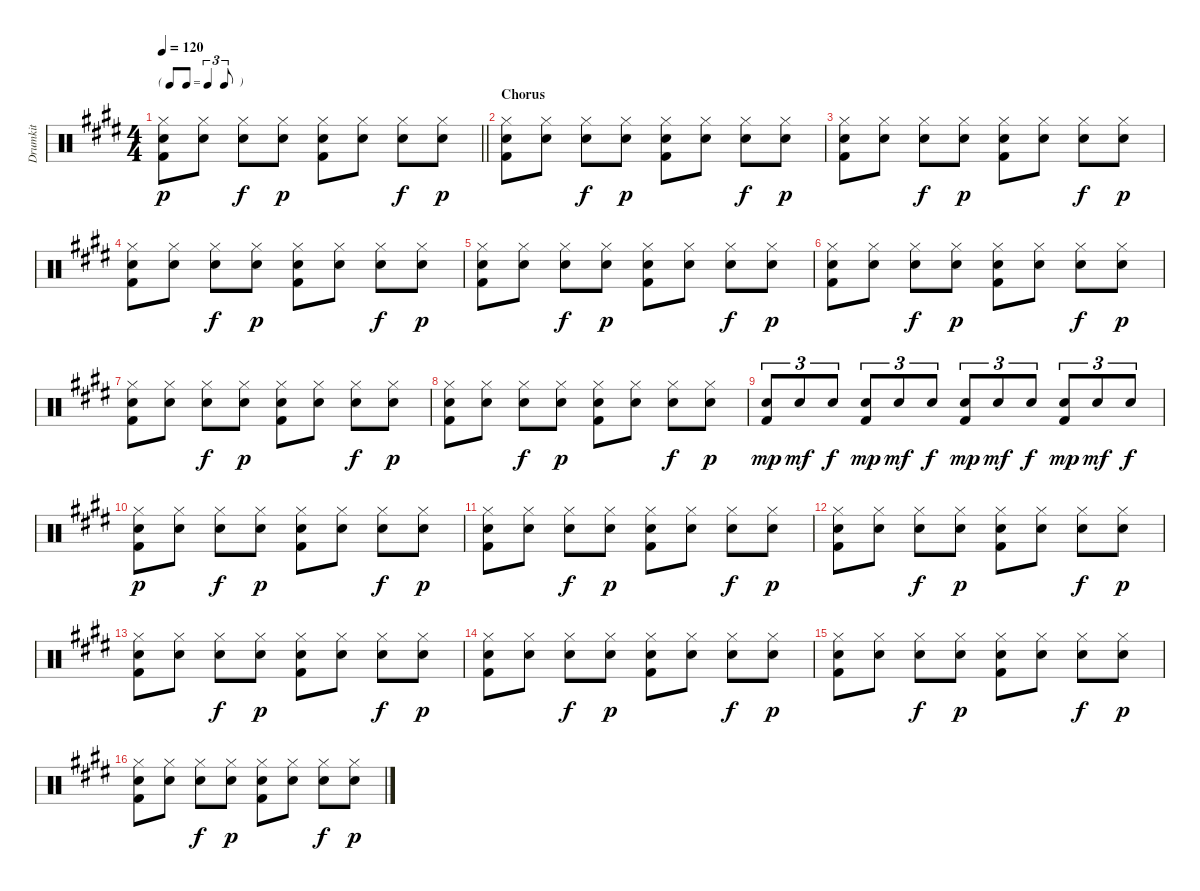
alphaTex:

\track ("Drumkit" "Drumkit") {instrument percussion}
\staff {score}
\articulation defaults
\ts (4 4)
\tf triplet8th
\tempo 120
\clef neutral
\barLineRight lightlight
\ks e
("Hi-Hat (closed)" "Snare (hit) 2" "Kick (hit) 2").8{dy p} ("Hi-Hat (closed)" "Snare (hit) 2").8 ("Hi-Hat (closed)" "Snare (hit) 2").8{dy f} ("Hi-Hat (closed)" "Snare (hit) 2").8{dy p} ("Hi-Hat (closed)" "Snare (hit) 2" "Kick (hit) 2").8 ("Hi-Hat (closed)" "Snare (hit) 2").8 ("Hi-Hat (closed)" "Snare (hit) 2").8{dy f} ("Hi-Hat (closed)" "Snare (hit) 2").8{dy p} |
\section ("" "Chorus")
("Hi-Hat (closed)" "Snare (hit) 2" "Kick (hit) 2").8 ("Hi-Hat (closed)" "Snare (hit) 2").8 ("Hi-Hat (closed)" "Snare (hit) 2").8{dy f} ("Hi-Hat (closed)" "Snare (hit) 2").8{dy p} ("Hi-Hat (closed)" "Snare (hit) 2" "Kick (hit) 2").8 ("Hi-Hat (closed)" "Snare (hit) 2").8 ("Hi-Hat (closed)" "Snare (hit) 2").8{dy f} ("Hi-Hat (closed)" "Snare (hit) 2").8{dy p} |
("Hi-Hat (closed)" "Snare (hit) 2" "Kick (hit) 2").8 ("Hi-Hat (closed)" "Snare (hit) 2").8 ("Hi-Hat (closed)" "Snare (hit) 2").8{dy f} ("Hi-Hat (closed)" "Snare (hit) 2").8{dy p} ("Hi-Hat (closed)" "Snare (hit) 2" "Kick (hit) 2").8 ("Hi-Hat (closed)" "Snare (hit) 2").8 ("Hi-Hat (closed)" "Snare (hit) 2").8{dy f} ("Hi-Hat (closed)" "Snare (hit) 2").8{dy p} |
("Hi-Hat (closed)" "Snare (hit) 2" "Kick (hit) 2").8 ("Hi-Hat (closed)" "Snare (hit) 2").8 ("Hi-Hat (closed)" "Snare (hit) 2").8{dy f} ("Hi-Hat (closed)" "Snare (hit) 2").8{dy p} ("Hi-Hat (closed)" "Snare (hit) 2" "Kick (hit) 2").8 ("Hi-Hat (closed)" "Snare (hit) 2").8 ("Hi-Hat (closed)" "Snare (hit) 2").8{dy f} ("Hi-Hat (closed)" "Snare (hit) 2").8{dy p} |
("Hi-Hat (closed)" "Snare (hit) 2" "Kick (hit) 2").8 ("Hi-Hat (closed)" "Snare (hit) 2").8 ("Hi-Hat (closed)" "Snare (hit) 2").8{dy f} ("Hi-Hat (closed)" "Snare (hit) 2").8{dy p} ("Hi-Hat (closed)" "Snare (hit) 2" "Kick (hit) 2").8 ("Hi-Hat (closed)" "Snare (hit) 2").8 ("Hi-Hat (closed)" "Snare (hit) 2").8{dy f} ("Hi-Hat (closed)" "Snare (hit) 2").8{dy p} |
("Hi-Hat (closed)" "Snare (hit) 2" "Kick (hit) 2").8 ("Hi-Hat (closed)" "Snare (hit) 2").8 ("Hi-Hat (closed)" "Snare (hit) 2").8{dy f} ("Hi-Hat (closed)" "Snare (hit) 2").8{dy p} ("Hi-Hat (closed)" "Snare (hit) 2" "Kick (hit) 2").8 ("Hi-Hat (closed)" "Snare (hit) 2").8 ("Hi-Hat (closed)" "Snare (hit) 2").8{dy f} ("Hi-Hat (closed)" "Snare (hit) 2").8{dy p} |
("Hi-Hat (closed)" "Snare (hit) 2" "Kick (hit) 2").8 ("Hi-Hat (closed)" "Snare (hit) 2").8 ("Hi-Hat (closed)" "Snare (hit) 2").8{dy f} ("Hi-Hat (closed)" "Snare (hit) 2").8{dy p} ("Hi-Hat (closed)" "Snare (hit) 2" "Kick (hit) 2").8 ("Hi-Hat (closed)" "Snare (hit) 2").8 ("Hi-Hat (closed)" "Snare (hit) 2").8{dy f} ("Hi-Hat (closed)" "Snare (hit) 2").8{dy p} |
("Hi-Hat (closed)" "Snare (hit) 2" "Kick (hit) 2").8 ("Hi-Hat (closed)" "Snare (hit) 2").8 ("Hi-Hat (closed)" "Snare (hit) 2").8{dy f} ("Hi-Hat (closed)" "Snare (hit) 2").8{dy p} ("Hi-Hat (closed)" "Snare (hit) 2" "Kick (hit) 2").8 ("Hi-Hat (closed)" "Snare (hit) 2").8 ("Hi-Hat (closed)" "Snare (hit) 2").8{dy f} ("Hi-Hat (closed)" "Snare (hit) 2").8{dy p} |
("Snare (hit) 2" "Kick (hit) 2").8{tu (3 2) dy mp} "Snare (hit) 2".8{tu (3 2) dy mf} "Snare (hit) 2".8{tu (3 2) dy f} ("Snare (hit) 2" "Kick (hit) 2").8{tu (3 2) dy mp} "Snare (hit) 2".8{tu (3 2) dy mf} "Snare (hit) 2".8{tu (3 2) dy f} ("Snare (hit) 2" "Kick (hit) 2").8{tu (3 2) dy mp} "Snare (hit) 2".8{tu (3 2) dy mf} "Snare (hit) 2".8{tu (3 2) dy f} ("Snare (hit) 2" "Kick (hit) 2").8{tu (3 2) dy mp} "Snare (hit) 2".8{tu (3 2) dy mf} "Snare (hit) 2".8{tu (3 2) dy f} |
("Hi-Hat (closed)" "Snare (hit) 2" "Kick (hit) 2").8{dy p} ("Hi-Hat (closed)" "Snare (hit) 2").8 ("Hi-Hat (closed)" "Snare (hit) 2").8{dy f} ("Hi-Hat (closed)" "Snare (hit) 2").8{dy p} ("Hi-Hat (closed)" "Snare (hit) 2" "Kick (hit) 2").8 ("Hi-Hat (closed)" "Snare (hit) 2").8 ("Hi-Hat (closed)" "Snare (hit) 2").8{dy f} ("Hi-Hat (closed)" "Snare (hit) 2").8{dy p} |
("Hi-Hat (closed)" "Snare (hit) 2" "Kick (hit) 2").8 ("Hi-Hat (closed)" "Snare (hit) 2").8 ("Hi-Hat (closed)" "Snare (hit) 2").8{dy f} ("Hi-Hat (closed)" "Snare (hit) 2").8{dy p} ("Hi-Hat (closed)" "Snare (hit) 2" "Kick (hit) 2").8 ("Hi-Hat (closed)" "Snare (hit) 2").8 ("Hi-Hat (closed)" "Snare (hit) 2").8{dy f} ("Hi-Hat (closed)" "Snare (hit) 2").8{dy p} |
("Hi-Hat (closed)" "Snare (hit) 2" "Kick (hit) 2").8 ("Hi-Hat (closed)" "Snare (hit) 2").8 ("Hi-Hat (closed)" "Snare (hit) 2").8{dy f} ("Hi-Hat (closed)" "Snare (hit) 2").8{dy p} ("Hi-Hat (closed)" "Snare (hit) 2" "Kick (hit) 2").8 ("Hi-Hat (closed)" "Snare (hit) 2").8 ("Hi-Hat (closed)" "Snare (hit) 2").8{dy f} ("Hi-Hat (closed)" "Snare (hit) 2").8{dy p} |
("Hi-Hat (closed)" "Snare (hit) 2" "Kick (hit) 2").8 ("Hi-Hat (closed)" "Snare (hit) 2").8 ("Hi-Hat (closed)" "Snare (hit) 2").8{dy f} ("Hi-Hat (closed)" "Snare (hit) 2").8{dy p} ("Hi-Hat (closed)" "Snare (hit) 2" "Kick (hit) 2").8 ("Hi-Hat (closed)" "Snare (hit) 2").8 ("Hi-Hat (closed)" "Snare (hit) 2").8{dy f} ("Hi-Hat (closed)" "Snare (hit) 2").8{dy p} |
("Hi-Hat (closed)" "Snare (hit) 2" "Kick (hit) 2").8 ("Hi-Hat (closed)" "Snare (hit) 2").8 ("Hi-Hat (closed)" "Snare (hit) 2").8{dy f} ("Hi-Hat (closed)" "Snare (hit) 2").8{dy p} ("Hi-Hat (closed)" "Snare (hit) 2" "Kick (hit) 2").8 ("Hi-Hat (closed)" "Snare (hit) 2").8 ("Hi-Hat (closed)" "Snare (hit) 2").8{dy f} ("Hi-Hat (closed)" "Snare (hit) 2").8{dy p} |
("Hi-Hat (closed)" "Snare (hit) 2" "Kick (hit) 2").8 ("Hi-Hat (closed)" "Snare (hit) 2").8 ("Hi-Hat (closed)" "Snare (hit) 2").8{dy f} ("Hi-Hat (closed)" "Snare (hit) 2").8{dy p} ("Hi-Hat (closed)" "Snare (hit) 2" "Kick (hit) 2").8 ("Hi-Hat (closed)" "Snare (hit) 2").8 ("Hi-Hat (closed)" "Snare (hit) 2").8{dy f} ("Hi-Hat (closed)" "Snare (hit) 2").8{dy p} |
("Hi-Hat (closed)" "Snare (hit) 2" "Kick (hit) 2").8 ("Hi-Hat (closed)" "Snare (hit) 2").8 ("Hi-Hat (closed)" "Snare (hit) 2").8{dy f} ("Hi-Hat (closed)" "Snare (hit) 2").8{dy p} ("Hi-Hat (closed)" "Snare (hit) 2" "Kick (hit) 2").8 ("Hi-Hat (closed)" "Snare (hit) 2").8 ("Hi-Hat (closed)" "Snare (hit) 2").8{dy f} ("Hi-Hat (closed)" "Snare (hit) 2").8{dy p}
